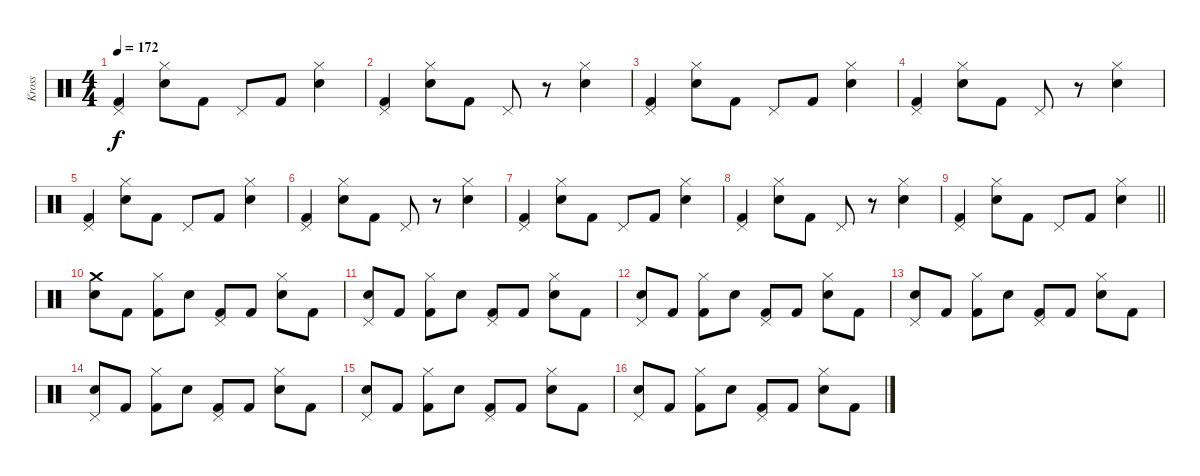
\track ("Kross" "Kross") {instrument percussion}
\staff {score}
\articulation defaults
\ts (4 4)
\tempo 172
\clef neutral
\ks c
("Pedal Hi-Hat (hit)" "Kick (hit) 2").4{dy f} ("Hi-Hat (closed)" "Electric Snare (hit)").8 "Kick (hit) 2".8 "Pedal Hi-Hat (hit)".8 "Kick (hit) 2".8 ("Hi-Hat (closed)" "Electric Snare (hit)").4 |
("Pedal Hi-Hat (hit)" "Kick (hit) 2").4 ("Hi-Hat (closed)" "Electric Snare (hit)").8 "Kick (hit) 2".8 "Pedal Hi-Hat (hit)".8 r.8 ("Hi-Hat (closed)" "Electric Snare (hit)").4 |
("Pedal Hi-Hat (hit)" "Kick (hit) 2").4 ("Hi-Hat (closed)" "Electric Snare (hit)").8 "Kick (hit) 2".8 "Pedal Hi-Hat (hit)".8 "Kick (hit) 2".8 ("Hi-Hat (closed)" "Electric Snare (hit)").4 |
("Pedal Hi-Hat (hit)" "Kick (hit) 2").4 ("Hi-Hat (closed)" "Electric Snare (hit)").8 "Kick (hit) 2".8 "Pedal Hi-Hat (hit)".8 r.8 ("Hi-Hat (closed)" "Electric Snare (hit)").4 |
("Pedal Hi-Hat (hit)" "Kick (hit) 2").4 ("Hi-Hat (closed)" "Electric Snare (hit)").8 "Kick (hit) 2".8 "Pedal Hi-Hat (hit)".8 "Kick (hit) 2".8 ("Hi-Hat (closed)" "Electric Snare (hit)").4 |
("Pedal Hi-Hat (hit)" "Kick (hit) 2").4 ("Hi-Hat (closed)" "Electric Snare (hit)").8 "Kick (hit) 2".8 "Pedal Hi-Hat (hit)".8 r.8 ("Hi-Hat (closed)" "Electric Snare (hit)").4 |
("Pedal Hi-Hat (hit)" "Kick (hit) 2").4 ("Hi-Hat (closed)" "Electric Snare (hit)").8 "Kick (hit) 2".8 "Pedal Hi-Hat (hit)".8 "Kick (hit) 2".8 ("Hi-Hat (closed)" "Electric Snare (hit)").4 |
("Pedal Hi-Hat (hit)" "Kick (hit) 2").4 ("Hi-Hat (closed)" "Electric Snare (hit)").8 "Kick (hit) 2".8 "Pedal Hi-Hat (hit)".8 r.8 ("Hi-Hat (closed)" "Electric Snare (hit)").4 |
\barLineRight lightlight
("Pedal Hi-Hat (hit)" "Kick (hit) 2").4 ("Hi-Hat (closed)" "Electric Snare (hit)").8 "Kick (hit) 2".8 "Pedal Hi-Hat (hit)".8 "Kick (hit) 2".8 ("Hi-Hat (closed)" "Electric Snare (hit)").4 |
("Crash medium (hit)" "Electric Snare (hit)").8 "Kick (hit) 2".8 ("Hi-Hat (closed)" "Kick (hit) 2").8 "Electric Snare (hit)".8 ("Pedal Hi-Hat (hit)" "Kick (hit) 2").8 "Kick (hit) 2".8 ("Hi-Hat (closed)" "Electric Snare (hit)").8 "Kick (hit) 2".8 |
("Pedal Hi-Hat (hit)" "Electric Snare (hit)").8 "Kick (hit) 2".8 ("Hi-Hat (closed)" "Kick (hit) 2").8 "Electric Snare (hit)".8 ("Pedal Hi-Hat (hit)" "Kick (hit) 2").8 "Kick (hit) 2".8 ("Hi-Hat (closed)" "Electric Snare (hit)").8 "Kick (hit) 2".8 |
("Pedal Hi-Hat (hit)" "Electric Snare (hit)").8 "Kick (hit) 2".8 ("Hi-Hat (closed)" "Kick (hit) 2").8 "Electric Snare (hit)".8 ("Pedal Hi-Hat (hit)" "Kick (hit) 2").8 "Kick (hit) 2".8 ("Hi-Hat (closed)" "Electric Snare (hit)").8 "Kick (hit) 2".8 |
("Pedal Hi-Hat (hit)" "Electric Snare (hit)").8 "Kick (hit) 2".8 ("Hi-Hat (closed)" "Kick (hit) 2").8 "Electric Snare (hit)".8 ("Pedal Hi-Hat (hit)" "Kick (hit) 2").8 "Kick (hit) 2".8 ("Hi-Hat (closed)" "Electric Snare (hit)").8 "Kick (hit) 2".8 |
("Pedal Hi-Hat (hit)" "Electric Snare (hit)").8 "Kick (hit) 2".8 ("Hi-Hat (closed)" "Kick (hit) 2").8 "Electric Snare (hit)".8 ("Pedal Hi-Hat (hit)" "Kick (hit) 2").8 "Kick (hit) 2".8 ("Hi-Hat (closed)" "Electric Snare (hit)").8 "Kick (hit) 2".8 |
("Pedal Hi-Hat (hit)" "Electric Snare (hit)").8 "Kick (hit) 2".8 ("Hi-Hat (closed)" "Kick (hit) 2").8 "Electric Snare (hit)".8 ("Pedal Hi-Hat (hit)" "Kick (hit) 2").8 "Kick (hit) 2".8 ("Hi-Hat (closed)" "Electric Snare (hit)").8 "Kick (hit) 2".8 |
("Pedal Hi-Hat (hit)" "Electric Snare (hit)").8 "Kick (hit) 2".8 ("Hi-Hat (closed)" "Kick (hit) 2").8 "Electric Snare (hit)".8 ("Pedal Hi-Hat (hit)" "Kick (hit) 2").8 "Kick (hit) 2".8 ("Hi-Hat (closed)" "Electric Snare (hit)").8 "Kick (hit) 2".8
